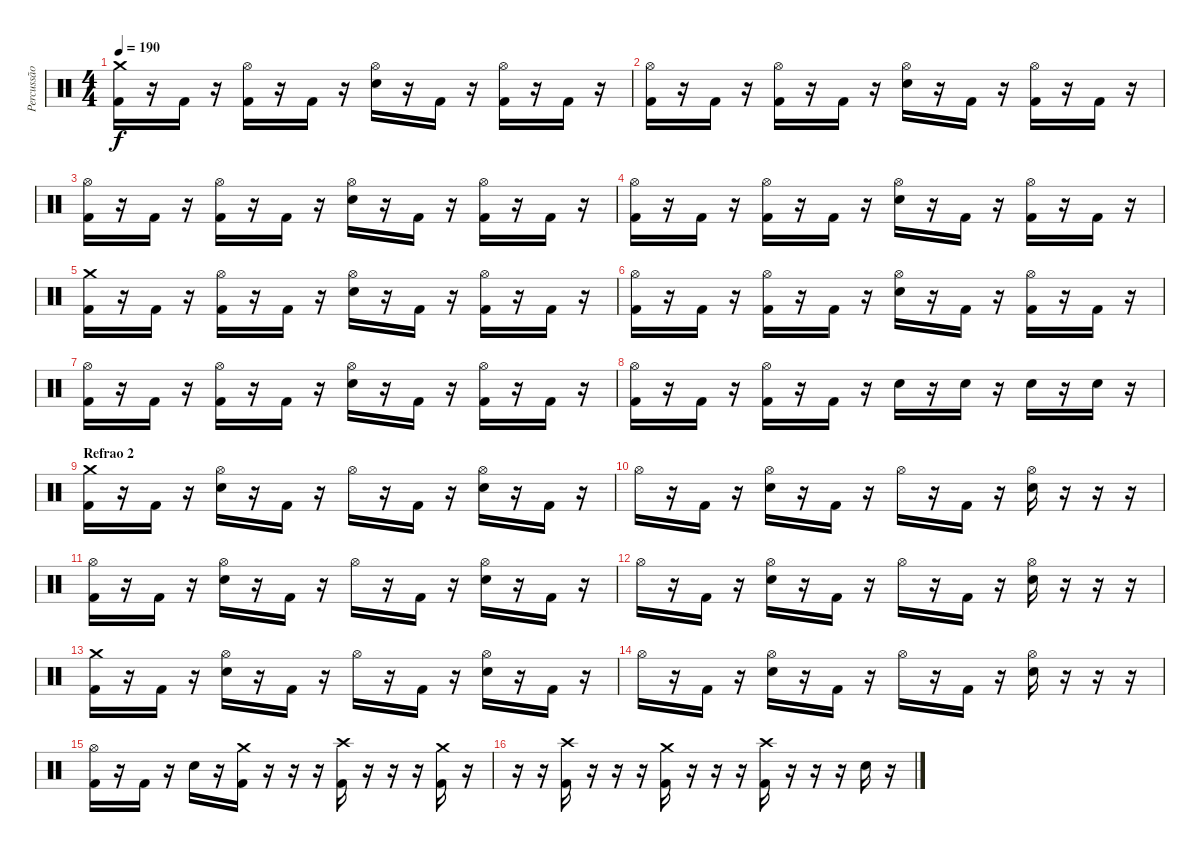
\track ("Percussão" "Percussão") {instrument percussion}
\staff {score}
\articulation defaults
\ts (4 4)
\tempo 190
\clef neutral
\ks c
("Crash medium (hit)" "Kick (hit) 2").16{dy f} r.16 "Kick (hit) 2".16 r.16 ("Hi-Hat (open)" "Kick (hit) 2").16 r.16 "Kick (hit) 2".16 r.16 ("Hi-Hat (open)" "Electric Snare (hit)").16 r.16 "Kick (hit) 2".16 r.16 ("Hi-Hat (open)" "Kick (hit) 2").16 r.16 "Kick (hit) 2".16 r.16 |
("Hi-Hat (open)" "Kick (hit) 2").16 r.16 "Kick (hit) 2".16 r.16 ("Hi-Hat (open)" "Kick (hit) 2").16 r.16 "Kick (hit) 2".16 r.16 ("Hi-Hat (open)" "Electric Snare (hit)").16 r.16 "Kick (hit) 2".16 r.16 ("Hi-Hat (open)" "Kick (hit) 2").16 r.16 "Kick (hit) 2".16 r.16 |
("Hi-Hat (open)" "Kick (hit) 2").16 r.16 "Kick (hit) 2".16 r.16 ("Hi-Hat (open)" "Kick (hit) 2").16 r.16 "Kick (hit) 2".16 r.16 ("Hi-Hat (open)" "Electric Snare (hit)").16 r.16 "Kick (hit) 2".16 r.16 ("Hi-Hat (open)" "Kick (hit) 2").16 r.16 "Kick (hit) 2".16 r.16 |
("Hi-Hat (open)" "Kick (hit) 2").16 r.16 "Kick (hit) 2".16 r.16 ("Hi-Hat (open)" "Kick (hit) 2").16 r.16 "Kick (hit) 2".16 r.16 ("Hi-Hat (open)" "Electric Snare (hit)").16 r.16 "Kick (hit) 2".16 r.16 ("Hi-Hat (open)" "Kick (hit) 2").16 r.16 "Kick (hit) 2".16 r.16 |
("Crash medium (hit)" "Kick (hit) 2").16 r.16 "Kick (hit) 2".16 r.16 ("Hi-Hat (open)" "Kick (hit) 2").16 r.16 "Kick (hit) 2".16 r.16 ("Hi-Hat (open)" "Electric Snare (hit)").16 r.16 "Kick (hit) 2".16 r.16 ("Hi-Hat (open)" "Kick (hit) 2").16 r.16 "Kick (hit) 2".16 r.16 |
("Hi-Hat (open)" "Kick (hit) 2").16 r.16 "Kick (hit) 2".16 r.16 ("Hi-Hat (open)" "Kick (hit) 2").16 r.16 "Kick (hit) 2".16 r.16 ("Hi-Hat (open)" "Electric Snare (hit)").16 r.16 "Kick (hit) 2".16 r.16 ("Hi-Hat (open)" "Kick (hit) 2").16 r.16 "Kick (hit) 2".16 r.16 |
("Hi-Hat (open)" "Kick (hit) 2").16 r.16 "Kick (hit) 2".16 r.16 ("Hi-Hat (open)" "Kick (hit) 2").16 r.16 "Kick (hit) 2".16 r.16 ("Hi-Hat (open)" "Electric Snare (hit)").16 r.16 "Kick (hit) 2".16 r.16 ("Hi-Hat (open)" "Kick (hit) 2").16 r.16 "Kick (hit) 2".16 r.16 |
("Hi-Hat (open)" "Kick (hit) 2").16 r.16 "Kick (hit) 2".16 r.16 ("Hi-Hat (open)" "Kick (hit) 2").16 r.16 "Kick (hit) 2".16 r.16 "Electric Snare (hit)".16 r.16 "Electric Snare (hit)".16 r.16 "Electric Snare (hit)".16 r.16 "Electric Snare (hit)".16 r.16 |
\section ("" "Refrao 2")
("Crash medium (hit)" "Kick (hit) 2").16 r.16 "Kick (hit) 2".16 r.16 ("Hi-Hat (open)" "Electric Snare (hit)").16 r.16 "Kick (hit) 2".16 r.16 "Hi-Hat (open)".16 r.16 "Kick (hit) 2".16 r.16 ("Hi-Hat (open)" "Electric Snare (hit)").16 r.16 "Kick (hit) 2".16 r.16 |
"Hi-Hat (open)".16 r.16 "Kick (hit) 2".16 r.16 ("Hi-Hat (open)" "Electric Snare (hit)").16 r.16 "Kick (hit) 2".16 r.16 "Hi-Hat (open)".16 r.16 "Kick (hit) 2".16 r.16 ("Hi-Hat (open)" "Electric Snare (hit)").16 r.16 r.16 r.16 |
("Hi-Hat (open)" "Kick (hit) 2").16 r.16 "Kick (hit) 2".16 r.16 ("Hi-Hat (open)" "Electric Snare (hit)").16 r.16 "Kick (hit) 2".16 r.16 "Hi-Hat (open)".16 r.16 "Kick (hit) 2".16 r.16 ("Hi-Hat (open)" "Electric Snare (hit)").16 r.16 "Kick (hit) 2".16 r.16 |
"Hi-Hat (open)".16 r.16 "Kick (hit) 2".16 r.16 ("Hi-Hat (open)" "Electric Snare (hit)").16 r.16 "Kick (hit) 2".16 r.16 "Hi-Hat (open)".16 r.16 "Kick (hit) 2".16 r.16 ("Hi-Hat (open)" "Electric Snare (hit)").16 r.16 r.16 r.16 |
("Crash medium (hit)" "Kick (hit) 2").16 r.16 "Kick (hit) 2".16 r.16 ("Hi-Hat (open)" "Electric Snare (hit)").16 r.16 "Kick (hit) 2".16 r.16 "Hi-Hat (open)".16 r.16 "Kick (hit) 2".16 r.16 ("Hi-Hat (open)" "Electric Snare (hit)").16 r.16 "Kick (hit) 2".16 r.16 |
"Hi-Hat (open)".16 r.16 "Kick (hit) 2".16 r.16 ("Hi-Hat (open)" "Electric Snare (hit)").16 r.16 "Kick (hit) 2".16 r.16 "Hi-Hat (open)".16 r.16 "Kick (hit) 2".16 r.16 ("Hi-Hat (open)" "Electric Snare (hit)").16 r.16 r.16 r.16 |
("Hi-Hat (open)" "Kick (hit) 2").16 r.16 "Kick (hit) 2".16 r.16 "Electric Snare (hit)".16 r.16 ("Crash medium (hit)" "Kick (hit) 2").16 r.16 r.16 r.16 ("Crash high (hit)" "Kick (hit) 2").16 r.16 r.16 r.16 ("Crash medium (hit)" "Kick (hit) 2").16 r.16 |
r.16 r.16 ("Crash high (hit)" "Kick (hit) 2").16 r.16 r.16 r.16 ("Crash medium (hit)" "Kick (hit) 2").16 r.16 r.16 r.16 ("Crash high (hit)" "Kick (hit) 2").16 r.16 r.16 r.16 "Electric Snare (hit)".16 r.16
